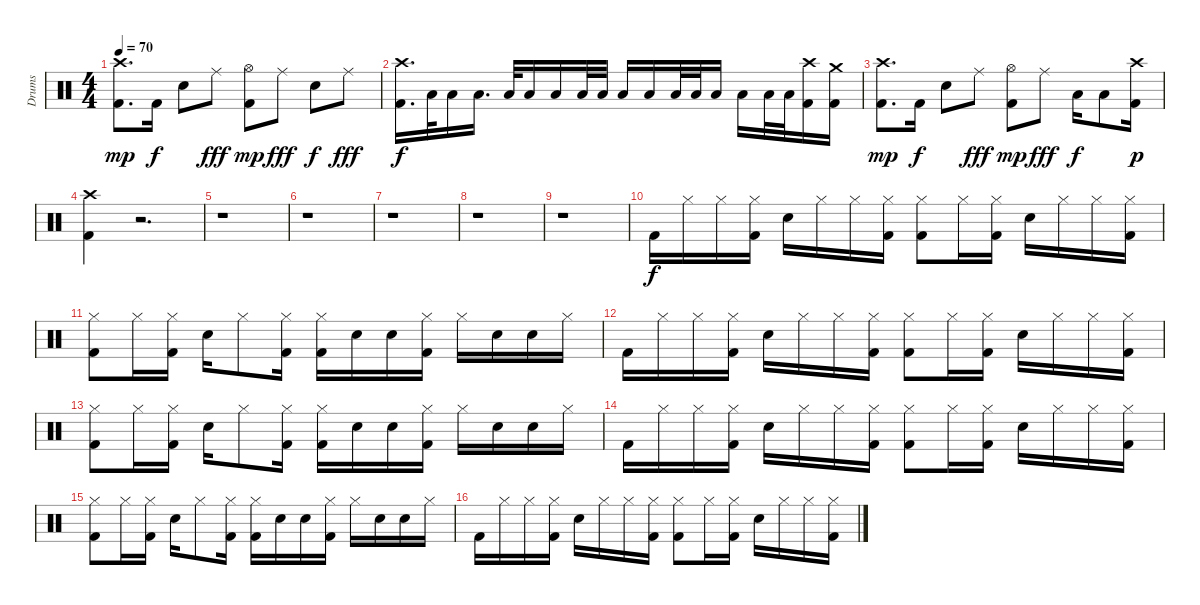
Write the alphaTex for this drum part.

\track ("Drums" "Drums") {instrument percussion}
\staff {score}
\articulation defaults
\ts (4 4)
\tempo 70
\clef neutral
\ks c
("Kick (hit) 2" "Crash high (hit)").8{d dy mp} "Kick (hit) 2".16{dy f} "Snare (hit) 2".8 "Ride (middle)".8{dy fff} ("Kick (hit) 2" "Hi-Hat (open)").8{dy mp} "Ride (middle)".8{dy fff} "Snare (hit) 2".8{dy f} "Ride (middle)".8{dy fff} |
("Kick (hit) 2" "Crash high (hit)").16{d dy f} "Low Tom (hit)".32 "Low Tom (hit)".16 "Low Tom (hit)".16{d} "Low Tom (hit)".32 "Low Tom (hit)".16 "Low Tom (hit)".16 "Low Tom (hit)".32 "Low Tom (hit)".32 "Low Tom (hit)".16 "Low Tom (hit)".16 "Low Tom (hit)".32 "Low Tom (hit)".32 "Low Tom (hit)".16 "Low Tom (hit)".16 "Low Tom (hit)".32 "Low Tom (hit)".32 ("Kick (hit) 2" "Crash high (hit)").16 ("Kick (hit) 2" "Crash medium (hit)").16 |
("Kick (hit) 2" "Crash high (hit)").8{d dy mp} "Kick (hit) 2".16{dy f} "Snare (hit) 2".8 "Ride (middle)".8{dy fff} ("Kick (hit) 2" "Hi-Hat (open)").8{dy mp} "Ride (middle)".8{dy fff} "Low Tom (hit)".16{dy f} "Low Tom (hit)".8 ("Kick (hit) 2" "Crash high (hit)").16{dy p} |
("Kick (hit) 2" "Crash high (hit)").4 r.2{d} |
r.1 |
r.1 |
r.1 |
r.1 |
r.1 |
"Kick (hit) 2".16{dy f volume 12} "Hi-Hat (closed)".16 "Hi-Hat (closed)".16 ("Kick (hit) 2" "Hi-Hat (closed)").16 "Snare (hit) 2".16 "Hi-Hat (closed)".16 "Hi-Hat (closed)".16 ("Kick (hit) 2" "Hi-Hat (closed)").16 ("Kick (hit) 2" "Hi-Hat (closed)").8 "Hi-Hat (closed)".16 ("Kick (hit) 2" "Hi-Hat (closed)").16 "Snare (hit) 2".16 "Hi-Hat (closed)".16 "Hi-Hat (closed)".16 ("Kick (hit) 2" "Hi-Hat (closed)").16 |
("Kick (hit) 2" "Hi-Hat (closed)").8 "Hi-Hat (closed)".16 ("Kick (hit) 2" "Hi-Hat (closed)").16 "Snare (hit) 2".16 "Hi-Hat (closed)".8 ("Kick (hit) 2" "Hi-Hat (closed)").16 ("Kick (hit) 2" "Hi-Hat (closed)").16 "Snare (hit) 2".16 "Snare (hit) 2".16 ("Kick (hit) 2" "Hi-Hat (closed)").16 "Hi-Hat (closed)".16 "Snare (hit) 2".16 "Snare (hit) 2".16 "Hi-Hat (closed)".16 |
"Kick (hit) 2".16 "Hi-Hat (closed)".16 "Hi-Hat (closed)".16 ("Kick (hit) 2" "Hi-Hat (closed)").16 "Snare (hit) 2".16 "Hi-Hat (closed)".16 "Hi-Hat (closed)".16 ("Kick (hit) 2" "Hi-Hat (closed)").16 ("Kick (hit) 2" "Hi-Hat (closed)").8 "Hi-Hat (closed)".16 ("Kick (hit) 2" "Hi-Hat (closed)").16 "Snare (hit) 2".16 "Hi-Hat (closed)".16 "Hi-Hat (closed)".16 ("Kick (hit) 2" "Hi-Hat (closed)").16 |
("Kick (hit) 2" "Hi-Hat (closed)").8 "Hi-Hat (closed)".16 ("Kick (hit) 2" "Hi-Hat (closed)").16 "Snare (hit) 2".16 "Hi-Hat (closed)".8 ("Kick (hit) 2" "Hi-Hat (closed)").16 ("Kick (hit) 2" "Hi-Hat (closed)").16 "Snare (hit) 2".16 "Snare (hit) 2".16 ("Kick (hit) 2" "Hi-Hat (closed)").16 "Hi-Hat (closed)".16 "Snare (hit) 2".16 "Snare (hit) 2".16 "Hi-Hat (closed)".16 |
"Kick (hit) 2".16 "Hi-Hat (closed)".16 "Hi-Hat (closed)".16 ("Kick (hit) 2" "Hi-Hat (closed)").16 "Snare (hit) 2".16 "Hi-Hat (closed)".16 "Hi-Hat (closed)".16 ("Kick (hit) 2" "Hi-Hat (closed)").16 ("Kick (hit) 2" "Hi-Hat (closed)").8 "Hi-Hat (closed)".16 ("Kick (hit) 2" "Hi-Hat (closed)").16 "Snare (hit) 2".16 "Hi-Hat (closed)".16 "Hi-Hat (closed)".16 ("Kick (hit) 2" "Hi-Hat (closed)").16 |
("Kick (hit) 2" "Hi-Hat (closed)").8 "Hi-Hat (closed)".16 ("Kick (hit) 2" "Hi-Hat (closed)").16 "Snare (hit) 2".16 "Hi-Hat (closed)".8 ("Kick (hit) 2" "Hi-Hat (closed)").16 ("Kick (hit) 2" "Hi-Hat (closed)").16 "Snare (hit) 2".16 "Snare (hit) 2".16 ("Kick (hit) 2" "Hi-Hat (closed)").16 "Hi-Hat (closed)".16 "Snare (hit) 2".16 "Snare (hit) 2".16 "Hi-Hat (closed)".16 |
"Kick (hit) 2".16 "Hi-Hat (closed)".16 "Hi-Hat (closed)".16 ("Kick (hit) 2" "Hi-Hat (closed)").16 "Snare (hit) 2".16 "Hi-Hat (closed)".16 "Hi-Hat (closed)".16 ("Kick (hit) 2" "Hi-Hat (closed)").16 ("Kick (hit) 2" "Hi-Hat (closed)").8 "Hi-Hat (closed)".16 ("Kick (hit) 2" "Hi-Hat (closed)").16 "Snare (hit) 2".16 "Hi-Hat (closed)".16 "Hi-Hat (closed)".16 ("Kick (hit) 2" "Hi-Hat (closed)").16
